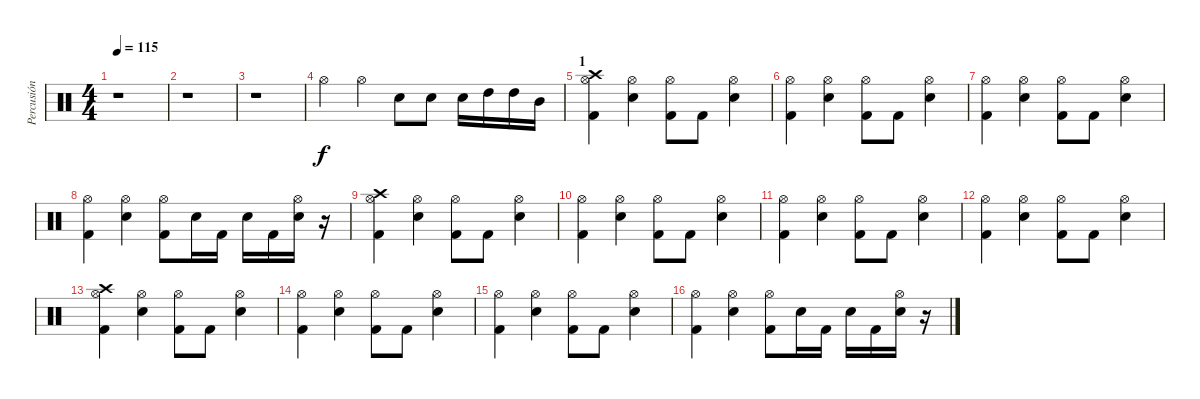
\track ("Percusión" "Percusión") {instrument percussion}
\staff {score}
\articulation defaults
\ts (4 4)
\tempo 115
\clef neutral
\ks c
r.1{dy f} |
r.1 |
r.1 |
"Hi-Hat (open)".4 "Hi-Hat (open)".4 "Electric Snare (hit)".8 "Electric Snare (hit)".8 "Electric Snare (hit)".16 "High Tom (hit)".16 "High Tom (hit)".16 "Mid Tom (hit)".16 |
\section ("" "1")
("Crash high (hit)" "Hi-Hat (open)" "Kick (hit) 2").4 ("Hi-Hat (open)" "Electric Snare (hit)").4 ("Hi-Hat (open)" "Kick (hit) 2").8 "Kick (hit) 2".8 ("Hi-Hat (open)" "Electric Snare (hit)").4 |
("Hi-Hat (open)" "Kick (hit) 2").4 ("Hi-Hat (open)" "Electric Snare (hit)").4 ("Hi-Hat (open)" "Kick (hit) 2").8 "Kick (hit) 2".8 ("Hi-Hat (open)" "Electric Snare (hit)").4 |
("Hi-Hat (open)" "Kick (hit) 2").4 ("Hi-Hat (open)" "Electric Snare (hit)").4 ("Hi-Hat (open)" "Kick (hit) 2").8 "Kick (hit) 2".8 ("Hi-Hat (open)" "Electric Snare (hit)").4 |
("Hi-Hat (open)" "Kick (hit) 2").4 ("Hi-Hat (open)" "Electric Snare (hit)").4 ("Hi-Hat (open)" "Kick (hit) 2").8 "Electric Snare (hit)".16 "Kick (hit) 2".16 "Electric Snare (hit)".16 "Kick (hit) 2".16 ("Hi-Hat (open)" "Electric Snare (hit)").16 r.16 |
("Crash high (hit)" "Hi-Hat (open)" "Kick (hit) 2").4 ("Hi-Hat (open)" "Electric Snare (hit)").4 ("Hi-Hat (open)" "Kick (hit) 2").8 "Kick (hit) 2".8 ("Hi-Hat (open)" "Electric Snare (hit)").4 |
("Hi-Hat (open)" "Kick (hit) 2").4 ("Hi-Hat (open)" "Electric Snare (hit)").4 ("Hi-Hat (open)" "Kick (hit) 2").8 "Kick (hit) 2".8 ("Hi-Hat (open)" "Electric Snare (hit)").4 |
("Hi-Hat (open)" "Kick (hit) 2").4 ("Hi-Hat (open)" "Electric Snare (hit)").4 ("Hi-Hat (open)" "Kick (hit) 2").8 "Kick (hit) 2".8 ("Hi-Hat (open)" "Electric Snare (hit)").4 |
("Hi-Hat (open)" "Kick (hit) 2").4 ("Hi-Hat (open)" "Electric Snare (hit)").4 ("Hi-Hat (open)" "Kick (hit) 2").8 "Kick (hit) 2".8 ("Hi-Hat (open)" "Electric Snare (hit)").4 |
("Crash high (hit)" "Hi-Hat (open)" "Kick (hit) 2").4 ("Hi-Hat (open)" "Electric Snare (hit)").4 ("Hi-Hat (open)" "Kick (hit) 2").8 "Kick (hit) 2".8 ("Hi-Hat (open)" "Electric Snare (hit)").4 |
("Hi-Hat (open)" "Kick (hit) 2").4 ("Hi-Hat (open)" "Electric Snare (hit)").4 ("Hi-Hat (open)" "Kick (hit) 2").8 "Kick (hit) 2".8 ("Hi-Hat (open)" "Electric Snare (hit)").4 |
("Hi-Hat (open)" "Kick (hit) 2").4 ("Hi-Hat (open)" "Electric Snare (hit)").4 ("Hi-Hat (open)" "Kick (hit) 2").8 "Kick (hit) 2".8 ("Hi-Hat (open)" "Electric Snare (hit)").4 |
("Hi-Hat (open)" "Kick (hit) 2").4 ("Hi-Hat (open)" "Electric Snare (hit)").4 ("Hi-Hat (open)" "Kick (hit) 2").8 "Electric Snare (hit)".16 "Kick (hit) 2".16 "Electric Snare (hit)".16 "Kick (hit) 2".16 ("Hi-Hat (open)" "Electric Snare (hit)").16 r.16
